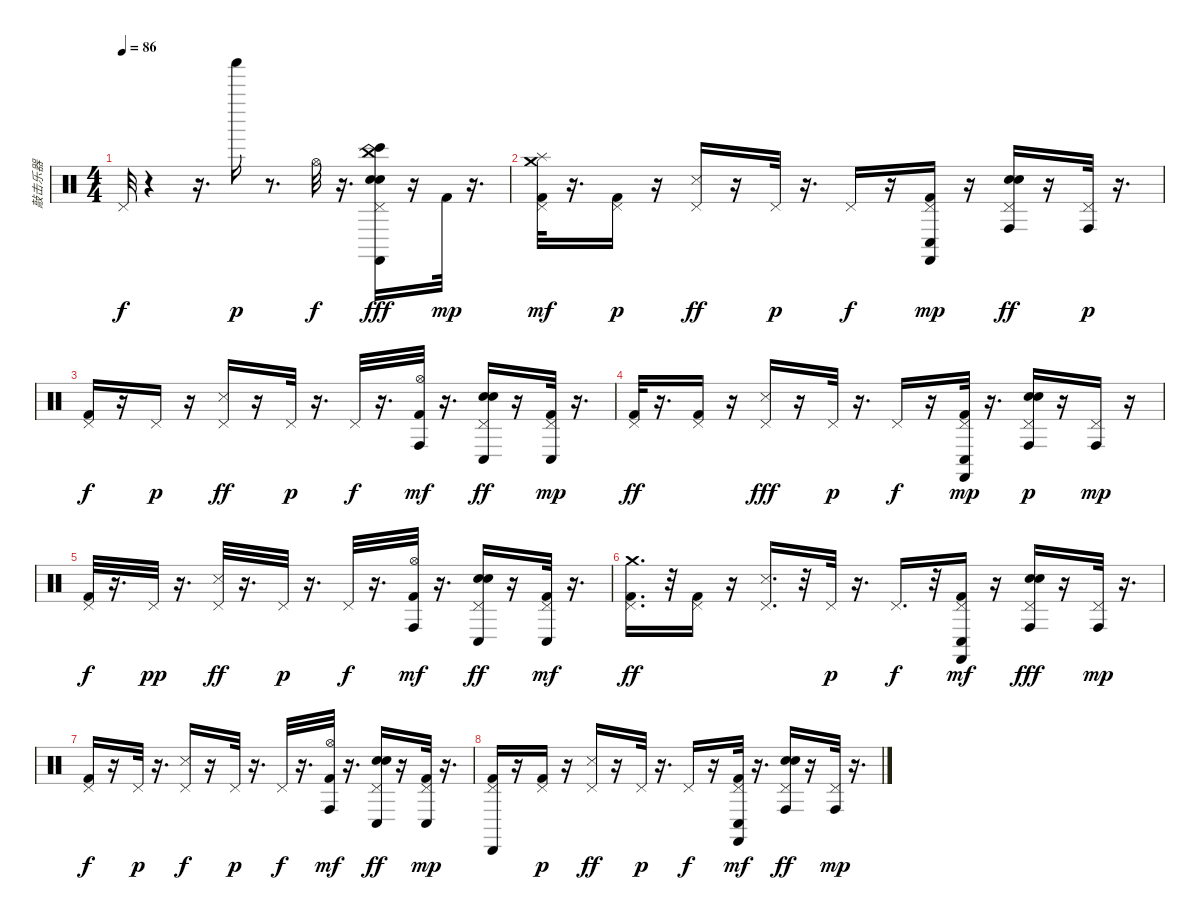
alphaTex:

\track ("敲击乐器" "敲击乐器") {instrument percussion}
\staff {score}
\articulation defaults
\ts (4 4)
\tempo 86
\clef neutral
\ks c "Pedal Hi-Hat (hit)".32{dy f}
r.4 r.16{d} "Shaker (hit)".16{dy p} r.8{d} "Hi-Hat (open)".32{dy f} r.16{d} ("Pedal Hi-Hat (hit)" "China (hit)" "Hand Clap (hit)" "Castanets (hit)" "Snare (hit)" "Bongo High (hit)").16{dy fff} r.16 "Kick (hit) 2".32{dy mp} r.16{d} |
("Pedal Hi-Hat (hit)" "Crash medium (hit)" "Splash (hit)" "Kick (hit) 2").32{dy mf} r.16{d} ("Pedal Hi-Hat (hit)" "Kick (hit) 2").16{dy p} r.16 ("Pedal Hi-Hat (hit)" "Snare (side stick) 3").16{dy ff} r.16 "Pedal Hi-Hat (hit)".32{dy p} r.16{d} "Pedal Hi-Hat (hit)".16{dy f} r.16 ("Pedal Hi-Hat (hit)" "Castanets (hit)" "Conga low (hit)" "Kick (hit) 2").16{dy mp} r.16 ("Pedal Hi-Hat (hit)" "Snare (hit)" "Conga high (hit)" "Electric Snare (hit)").16{dy ff} r.16 ("Pedal Hi-Hat (hit)" "Conga high (hit)").32{dy p} r.16{d} |
("Pedal Hi-Hat (hit)" "Kick (hit) 2").16{dy f} r.16 "Pedal Hi-Hat (hit)".16{dy p} r.16 ("Pedal Hi-Hat (hit)" "Snare (side stick) 3").16{dy ff} r.16 "Pedal Hi-Hat (hit)".32{dy p} r.16{d} "Pedal Hi-Hat (hit)".32{dy f} r.16{d} ("Hi-Hat (open)" "Conga high (hit)" "Kick (hit) 2").32{dy mf} r.16{d} ("Pedal Hi-Hat (hit)" "Snare (hit)" "Conga low (hit)" "Electric Snare (hit)").16{dy ff} r.16 ("Pedal Hi-Hat (hit)" "Conga low (hit)" "Kick (hit) 2").32{dy mp} r.16{d} |
("Pedal Hi-Hat (hit)" "Kick (hit) 2").32{dy ff} r.16{d} ("Pedal Hi-Hat (hit)" "Kick (hit) 2").16 r.16 ("Pedal Hi-Hat (hit)" "Snare (side stick) 3").16{dy fff} r.16 "Pedal Hi-Hat (hit)".32{dy p} r.16{d} "Pedal Hi-Hat (hit)".16{dy f} r.16 ("Pedal Hi-Hat (hit)" "Castanets (hit)" "Conga low (hit)" "Kick (hit) 2").32{dy mp} r.16{d} ("Pedal Hi-Hat (hit)" "Snare (hit)" "Conga high (hit)" "Electric Snare (hit)").16{dy p} r.16 ("Pedal Hi-Hat (hit)" "Conga high (hit)").16{dy mp} r.16 |
("Pedal Hi-Hat (hit)" "Kick (hit) 2").32{dy f} r.16{d} "Pedal Hi-Hat (hit)".32{dy pp} r.16{d} ("Pedal Hi-Hat (hit)" "Snare (side stick) 3").32{dy ff} r.16{d} "Pedal Hi-Hat (hit)".32{dy p} r.16{d} "Pedal Hi-Hat (hit)".32{dy f} r.16{d} ("Hi-Hat (open)" "Conga high (hit)" "Kick (hit) 2").32{dy mf} r.16{d} ("Pedal Hi-Hat (hit)" "Conga low (hit)" "Snare (hit)" "Electric Snare (hit)").16{dy ff} r.16 ("Pedal Hi-Hat (hit)" "Conga low (hit)" "Kick (hit) 2").32{dy mf} r.16{d} |
("Pedal Hi-Hat (hit)" "Crash medium (hit)" "Kick (hit) 2").16{d dy ff} r.32 ("Pedal Hi-Hat (hit)" "Kick (hit) 2").16 r.16 ("Pedal Hi-Hat (hit)" "Snare (side stick) 3").16{d} r.32 "Pedal Hi-Hat (hit)".32{dy p} r.16{d} "Pedal Hi-Hat (hit)".16{d dy f} r.32 ("Pedal Hi-Hat (hit)" "Conga low (hit)" "Castanets (hit)" "Kick (hit) 2").16{dy mf} r.16 ("Pedal Hi-Hat (hit)" "Conga high (hit)" "Snare (hit)" "Electric Snare (hit)").16{dy fff} r.16 ("Pedal Hi-Hat (hit)" "Conga high (hit)").32{dy mp} r.16{d} |
("Pedal Hi-Hat (hit)" "Kick (hit) 2").16{dy f} r.16 "Pedal Hi-Hat (hit)".32{dy p} r.16{d} ("Pedal Hi-Hat (hit)" "Snare (side stick) 3").16{dy f} r.16 "Pedal Hi-Hat (hit)".32{dy p} r.16{d} "Pedal Hi-Hat (hit)".32{dy f} r.16{d} ("Hi-Hat (open)" "Conga high (hit)" "Kick (hit) 2").32{dy mf} r.16{d} ("Pedal Hi-Hat (hit)" "Conga low (hit)" "Snare (hit)" "Electric Snare (hit)").16{dy ff} r.16 ("Pedal Hi-Hat (hit)" "Conga low (hit)" "Kick (hit) 2").32{dy mp} r.16{d} |
("Pedal Hi-Hat (hit)" "Cabasa (hit)" "Kick (hit) 2").16 r.16 ("Pedal Hi-Hat (hit)" "Kick (hit) 2").16{dy p} r.16 ("Pedal Hi-Hat (hit)" "Snare (side stick) 3").16{dy ff} r.16 "Pedal Hi-Hat (hit)".32{dy p} r.16{d} "Pedal Hi-Hat (hit)".16{dy f} r.16 ("Pedal Hi-Hat (hit)" "Castanets (hit)" "Conga low (hit)" "Kick (hit) 2").32{dy mf} r.16{d} ("Pedal Hi-Hat (hit)" "Snare (hit)" "Conga high (hit)" "Electric Snare (hit)").16{dy ff} r.16 ("Pedal Hi-Hat (hit)" "Conga high (hit)").32{dy mp} r.16{d}
